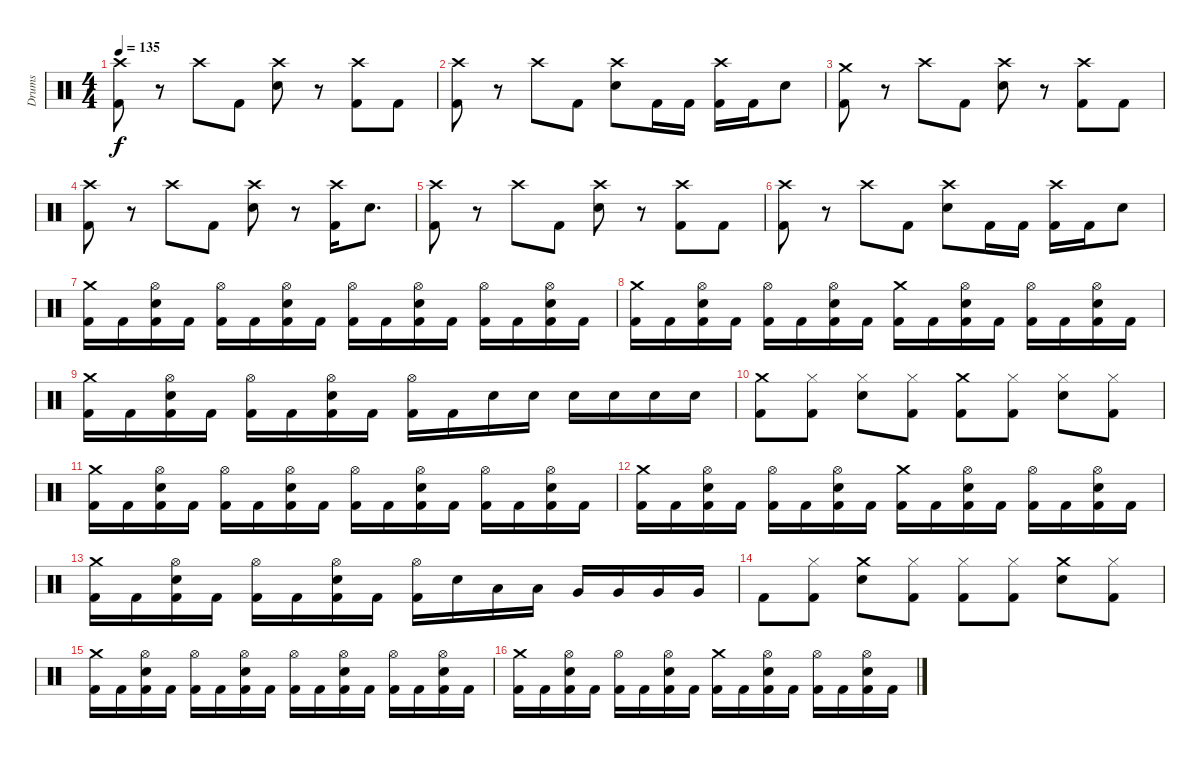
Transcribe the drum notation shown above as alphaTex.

\track ("Drums" "Drums") {instrument percussion}
\staff {score}
\articulation defaults
\ts (4 4)
\tempo 135
\clef neutral
\ks c
("Crash high (hit)" "Kick (hit) 2").8{dy f} r.8 "Crash high (hit)".8 "Kick (hit) 2".8 ("Crash high (hit)" "Electric Snare (hit)").8 r.8 ("Crash high (hit)" "Kick (hit) 2").8 "Kick (hit) 2".8 |
("Crash high (hit)" "Kick (hit) 2").8 r.8 "Crash high (hit)".8 "Kick (hit) 2".8 ("Crash high (hit)" "Electric Snare (hit)").8 "Kick (hit) 2".16 "Kick (hit) 2".16 ("Crash high (hit)" "Kick (hit) 2").16 "Kick (hit) 2".16 "Electric Snare (hit)".8 |
("Crash medium (hit)" "Kick (hit) 2").8 r.8 "Crash high (hit)".8 "Kick (hit) 2".8 ("Crash high (hit)" "Electric Snare (hit)").8 r.8 ("Crash high (hit)" "Kick (hit) 2").8 "Kick (hit) 2".8 |
("Crash high (hit)" "Kick (hit) 2").8 r.8 "Crash high (hit)".8 "Kick (hit) 2".8 ("Crash high (hit)" "Electric Snare (hit)").8 r.8 ("Crash high (hit)" "Kick (hit) 2").16 "Electric Snare (hit)".8{d} |
("Crash high (hit)" "Kick (hit) 2").8 r.8 "Crash high (hit)".8 "Kick (hit) 2".8 ("Crash high (hit)" "Electric Snare (hit)").8 r.8 ("Crash high (hit)" "Kick (hit) 2").8 "Kick (hit) 2".8 |
("Crash high (hit)" "Kick (hit) 2").8 r.8 "Crash high (hit)".8 "Kick (hit) 2".8 ("Crash high (hit)" "Electric Snare (hit)").8 "Kick (hit) 2".16 "Kick (hit) 2".16 ("Crash high (hit)" "Kick (hit) 2").16 "Kick (hit) 2".16 "Electric Snare (hit)".8 |
("Crash medium (hit)" "Kick (hit) 2").16 "Kick (hit) 2".16 ("Hi-Hat (open)" "Electric Snare (hit)" "Kick (hit) 2").16 "Kick (hit) 2".16 ("Hi-Hat (open)" "Kick (hit) 2").16 "Kick (hit) 2".16 ("Hi-Hat (open)" "Electric Snare (hit)" "Kick (hit) 2").16 "Kick (hit) 2".16 ("Hi-Hat (open)" "Kick (hit) 2").16 "Kick (hit) 2".16 ("Hi-Hat (open)" "Electric Snare (hit)" "Kick (hit) 2").16 "Kick (hit) 2".16 ("Hi-Hat (open)" "Kick (hit) 2").16 "Kick (hit) 2".16 ("Hi-Hat (open)" "Electric Snare (hit)" "Kick (hit) 2").16 "Kick (hit) 2".16 |
("Crash medium (hit)" "Kick (hit) 2").16 "Kick (hit) 2".16 ("Hi-Hat (open)" "Electric Snare (hit)" "Kick (hit) 2").16 "Kick (hit) 2".16 ("Hi-Hat (open)" "Kick (hit) 2").16 "Kick (hit) 2".16 ("Hi-Hat (open)" "Electric Snare (hit)" "Kick (hit) 2").16 "Kick (hit) 2".16 ("Crash medium (hit)" "Kick (hit) 2").16 "Kick (hit) 2".16 ("Hi-Hat (open)" "Electric Snare (hit)" "Kick (hit) 2").16 "Kick (hit) 2".16 ("Hi-Hat (open)" "Kick (hit) 2").16 "Kick (hit) 2".16 ("Hi-Hat (open)" "Electric Snare (hit)" "Kick (hit) 2").16 "Kick (hit) 2".16 |
("Crash medium (hit)" "Kick (hit) 2").16 "Kick (hit) 2".16 ("Hi-Hat (open)" "Electric Snare (hit)" "Kick (hit) 2").16 "Kick (hit) 2".16 ("Hi-Hat (open)" "Kick (hit) 2").16 "Kick (hit) 2".16 ("Hi-Hat (open)" "Electric Snare (hit)" "Kick (hit) 2").16 "Kick (hit) 2".16 ("Hi-Hat (open)" "Kick (hit) 2").16 "Kick (hit) 2".16 "Electric Snare (hit)".16 "Electric Snare (hit)".16 "Electric Snare (hit)".16 "Electric Snare (hit)".16 "Electric Snare (hit)".16 "Electric Snare (hit)".16 |
("Crash medium (hit)" "Kick (hit) 2").8 ("Hi-Hat (closed)" "Kick (hit) 2").8 ("Hi-Hat (closed)" "Electric Snare (hit)").8 ("Hi-Hat (closed)" "Kick (hit) 2").8 ("Crash medium (hit)" "Kick (hit) 2").8 ("Hi-Hat (closed)" "Kick (hit) 2").8 ("Hi-Hat (closed)" "Electric Snare (hit)").8 ("Hi-Hat (closed)" "Kick (hit) 2").8 |
("Crash medium (hit)" "Kick (hit) 2").16 "Kick (hit) 2".16 ("Hi-Hat (open)" "Electric Snare (hit)" "Kick (hit) 2").16 "Kick (hit) 2".16 ("Hi-Hat (open)" "Kick (hit) 2").16 "Kick (hit) 2".16 ("Hi-Hat (open)" "Electric Snare (hit)" "Kick (hit) 2").16 "Kick (hit) 2".16 ("Hi-Hat (open)" "Kick (hit) 2").16 "Kick (hit) 2".16 ("Hi-Hat (open)" "Electric Snare (hit)" "Kick (hit) 2").16 "Kick (hit) 2".16 ("Hi-Hat (open)" "Kick (hit) 2").16 "Kick (hit) 2".16 ("Hi-Hat (open)" "Electric Snare (hit)" "Kick (hit) 2").16 "Kick (hit) 2".16 |
("Crash medium (hit)" "Kick (hit) 2").16 "Kick (hit) 2".16 ("Hi-Hat (open)" "Electric Snare (hit)" "Kick (hit) 2").16 "Kick (hit) 2".16 ("Hi-Hat (open)" "Kick (hit) 2").16 "Kick (hit) 2".16 ("Hi-Hat (open)" "Electric Snare (hit)" "Kick (hit) 2").16 "Kick (hit) 2".16 ("Crash medium (hit)" "Kick (hit) 2").16 "Kick (hit) 2".16 ("Hi-Hat (open)" "Electric Snare (hit)" "Kick (hit) 2").16 "Kick (hit) 2".16 ("Hi-Hat (open)" "Kick (hit) 2").16 "Kick (hit) 2".16 ("Hi-Hat (open)" "Electric Snare (hit)" "Kick (hit) 2").16 "Kick (hit) 2".16 |
("Crash medium (hit)" "Kick (hit) 2").16 "Kick (hit) 2".16 ("Hi-Hat (open)" "Electric Snare (hit)" "Kick (hit) 2").16 "Kick (hit) 2".16 ("Hi-Hat (open)" "Kick (hit) 2").16 "Kick (hit) 2".16 ("Hi-Hat (open)" "Electric Snare (hit)" "Kick (hit) 2").16 "Kick (hit) 2".16 ("Hi-Hat (open)" "Kick (hit) 2").16 "Electric Snare (hit)".16 "Low Tom (hit)".16 "Low Tom (hit)".16 "Very Low Tom (hit)".16 "Very Low Tom (hit)".16 "Very Low Tom (hit)".16 "Very Low Tom (hit)".16 |
"Kick (hit) 2".8 ("Hi-Hat (closed)" "Kick (hit) 2").8 ("Crash medium (hit)" "Electric Snare (hit)").8 ("Hi-Hat (closed)" "Kick (hit) 2").8 ("Hi-Hat (closed)" "Kick (hit) 2").8 ("Hi-Hat (closed)" "Kick (hit) 2").8 ("Crash medium (hit)" "Electric Snare (hit)").8 ("Hi-Hat (closed)" "Kick (hit) 2").8 |
("Crash medium (hit)" "Kick (hit) 2").16 "Kick (hit) 2".16 ("Hi-Hat (open)" "Electric Snare (hit)" "Kick (hit) 2").16 "Kick (hit) 2".16 ("Hi-Hat (open)" "Kick (hit) 2").16 "Kick (hit) 2".16 ("Hi-Hat (open)" "Electric Snare (hit)" "Kick (hit) 2").16 "Kick (hit) 2".16 ("Hi-Hat (open)" "Kick (hit) 2").16 "Kick (hit) 2".16 ("Hi-Hat (open)" "Electric Snare (hit)" "Kick (hit) 2").16 "Kick (hit) 2".16 ("Hi-Hat (open)" "Kick (hit) 2").16 "Kick (hit) 2".16 ("Hi-Hat (open)" "Electric Snare (hit)" "Kick (hit) 2").16 "Kick (hit) 2".16 |
("Crash medium (hit)" "Kick (hit) 2").16 "Kick (hit) 2".16 ("Hi-Hat (open)" "Electric Snare (hit)" "Kick (hit) 2").16 "Kick (hit) 2".16 ("Hi-Hat (open)" "Kick (hit) 2").16 "Kick (hit) 2".16 ("Hi-Hat (open)" "Electric Snare (hit)" "Kick (hit) 2").16 "Kick (hit) 2".16 ("Crash medium (hit)" "Kick (hit) 2").16 "Kick (hit) 2".16 ("Hi-Hat (open)" "Electric Snare (hit)" "Kick (hit) 2").16 "Kick (hit) 2".16 ("Hi-Hat (open)" "Kick (hit) 2").16 "Kick (hit) 2".16 ("Hi-Hat (open)" "Electric Snare (hit)" "Kick (hit) 2").16 "Kick (hit) 2".16
